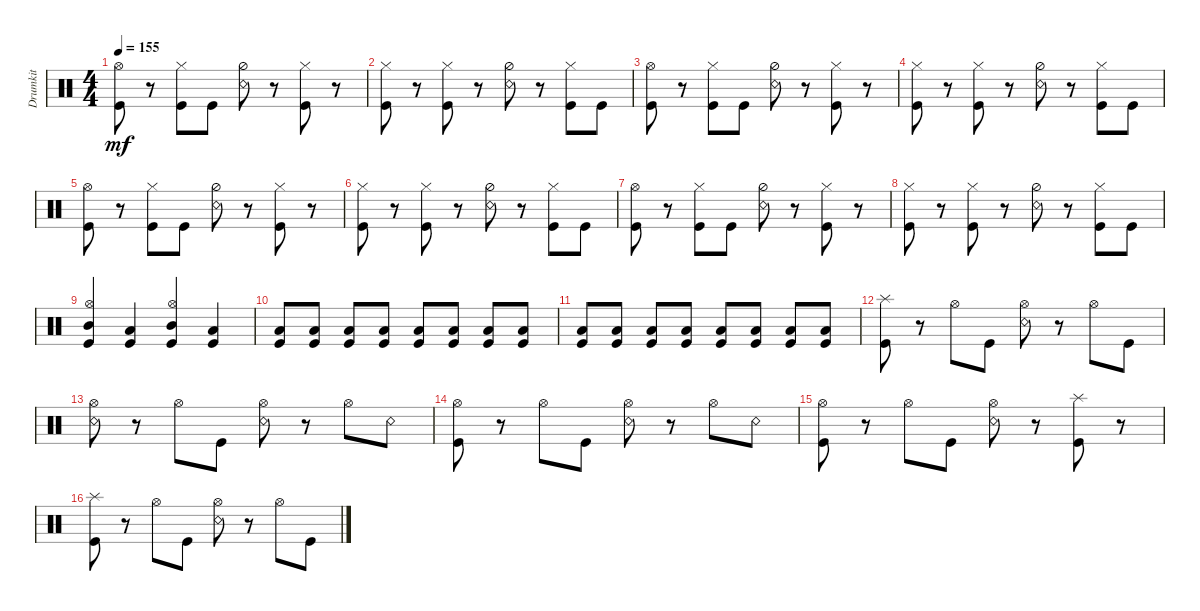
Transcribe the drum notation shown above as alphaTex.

\track ("Drumkit" "Drumkit") {instrument percussion}
\staff {score}
\articulation defaults
\ts (4 4)
\tempo 155
\clef neutral
\ks c
("Kick (hit)" "Hi-Hat (open)").8{dy mf} r.8 ("Kick (hit)" "Hi-Hat (closed)").8 "Kick (hit)".8 ("Snare (rim shot)" "Hi-Hat (half)").8 r.8 ("Kick (hit)" "Hi-Hat (closed)").8 r.8 |
("Kick (hit)" "Hi-Hat (closed)").8 r.8 ("Kick (hit)" "Hi-Hat (closed)").8 r.8 ("Snare (rim shot)" "Hi-Hat (half)").8 r.8 ("Kick (hit)" "Hi-Hat (closed)").8 "Kick (hit)".8 |
("Kick (hit)" "Hi-Hat (open)").8 r.8 ("Kick (hit)" "Hi-Hat (closed)").8 "Kick (hit)".8 ("Snare (rim shot)" "Hi-Hat (half)").8 r.8 ("Kick (hit)" "Hi-Hat (closed)").8 r.8 |
("Kick (hit)" "Hi-Hat (closed)").8 r.8 ("Kick (hit)" "Hi-Hat (closed)").8 r.8 ("Snare (rim shot)" "Hi-Hat (half)").8 r.8 ("Kick (hit)" "Hi-Hat (closed)").8 "Kick (hit)".8 |
("Kick (hit)" "Hi-Hat (open)").8 r.8 ("Kick (hit)" "Hi-Hat (closed)").8 "Kick (hit)".8 ("Snare (rim shot)" "Hi-Hat (half)").8 r.8 ("Kick (hit)" "Hi-Hat (closed)").8 r.8 |
("Kick (hit)" "Hi-Hat (closed)").8 r.8 ("Kick (hit)" "Hi-Hat (closed)").8 r.8 ("Snare (rim shot)" "Hi-Hat (half)").8 r.8 ("Kick (hit)" "Hi-Hat (closed)").8 "Kick (hit)".8 |
("Kick (hit)" "Hi-Hat (open)").8 r.8 ("Kick (hit)" "Hi-Hat (closed)").8 "Kick (hit)".8 ("Snare (rim shot)" "Hi-Hat (half)").8 r.8 ("Kick (hit)" "Hi-Hat (closed)").8 r.8 |
("Kick (hit)" "Hi-Hat (closed)").8 r.8 ("Kick (hit)" "Hi-Hat (closed)").8 r.8 ("Snare (rim shot)" "Hi-Hat (half)").8 r.8 ("Kick (hit)" "Hi-Hat (closed)").8 "Kick (hit)".8 |
("Mid Tom (hit)" "Kick (hit)" "Hi-Hat (open)").4 ("Low Tom (hit)" "Kick (hit)").4 ("Mid Tom (hit)" "Kick (hit)" "Hi-Hat (open)").4 ("Low Tom (hit)" "Kick (hit)").4 |
("Kick (hit)" "Low Tom (hit)").8 ("Kick (hit)" "Low Tom (hit)").8 ("Kick (hit)" "Low Tom (hit)").8 ("Kick (hit)" "Low Tom (hit)").8 ("Kick (hit)" "Low Tom (hit)").8 ("Kick (hit)" "Low Tom (hit)").8 ("Kick (hit)" "Low Tom (hit)").8 ("Kick (hit)" "Low Tom (hit)").8 |
("Kick (hit)" "Low Tom (hit)").8 ("Kick (hit)" "Low Tom (hit)").8 ("Kick (hit)" "Low Tom (hit)").8 ("Kick (hit)" "Low Tom (hit)").8 ("Kick (hit)" "Low Tom (hit)").8 ("Kick (hit)" "Low Tom (hit)").8 ("Kick (hit)" "Low Tom (hit)").8 ("Kick (hit)" "Low Tom (hit)").8 |
("Kick (hit)" "Splash (hit)").8 r.8 "Hi-Hat (open)".8 "Kick (hit)".8 ("Snare (rim shot)" "Hi-Hat (open)").8 r.8 "Hi-Hat (open)".8 "Kick (hit)".8 |
("Snare (rim shot)" "Hi-Hat (open)").8 r.8 "Hi-Hat (open)".8 "Kick (hit)".8 ("Hi-Hat (open)" "Snare (rim shot)").8 r.8 "Hi-Hat (open)".8 "Snare (rim shot)".8 |
("Hi-Hat (open)" "Kick (hit)").8 r.8 "Hi-Hat (open)".8 "Kick (hit)".8 ("Hi-Hat (open)" "Snare (rim shot)").8 r.8 "Hi-Hat (open)".8 "Snare (rim shot)".8 |
("Kick (hit)" "Hi-Hat (open)").8 r.8 "Hi-Hat (open)".8 "Kick (hit)".8 ("Snare (rim shot)" "Hi-Hat (open)").8 r.8 ("Kick (hit)" "Splash (hit)").8 r.8 |
("Kick (hit)" "Splash (hit)").8 r.8 "Hi-Hat (open)".8 "Kick (hit)".8 ("Snare (rim shot)" "Hi-Hat (open)").8 r.8 "Hi-Hat (open)".8 "Kick (hit)".8
